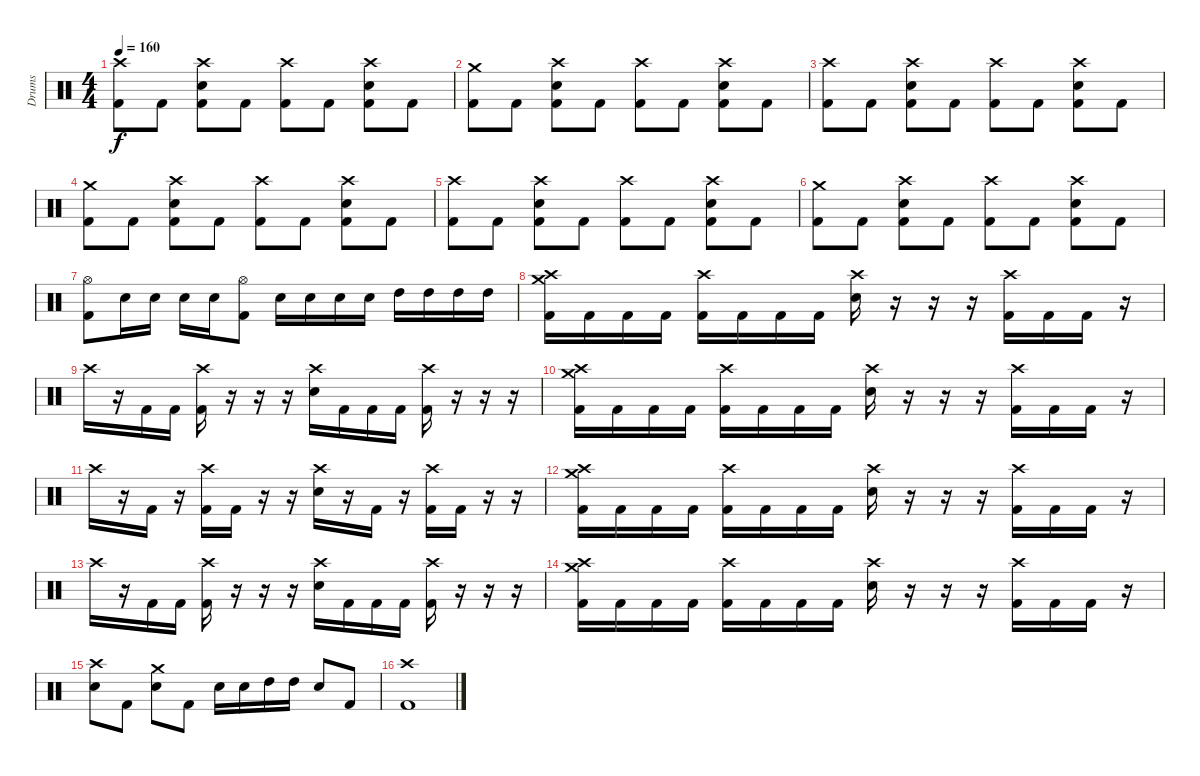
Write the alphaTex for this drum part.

\track ("Drums" "Drums") {instrument percussion}
\staff {score}
\articulation defaults
\ts (4 4)
\tempo 160
\clef neutral
\ks c
("Crash high (hit)" "Kick (hit) 2").8{dy f} "Kick (hit) 2".8 ("Crash high (hit)" "Electric Snare (hit)" "Kick (hit) 2").8 "Kick (hit) 2".8 ("Crash high (hit)" "Kick (hit) 2").8 "Kick (hit) 2".8 ("Crash high (hit)" "Electric Snare (hit)" "Kick (hit) 2").8 "Kick (hit) 2".8 |
("Crash medium (hit)" "Kick (hit) 2").8 "Kick (hit) 2".8 ("Crash high (hit)" "Electric Snare (hit)" "Kick (hit) 2").8 "Kick (hit) 2".8 ("Crash high (hit)" "Kick (hit) 2").8 "Kick (hit) 2".8 ("Crash high (hit)" "Electric Snare (hit)" "Kick (hit) 2").8 "Kick (hit) 2".8 |
("Crash high (hit)" "Kick (hit) 2").8 "Kick (hit) 2".8 ("Crash high (hit)" "Electric Snare (hit)" "Kick (hit) 2").8 "Kick (hit) 2".8 ("Crash high (hit)" "Kick (hit) 2").8 "Kick (hit) 2".8 ("Crash high (hit)" "Electric Snare (hit)" "Kick (hit) 2").8 "Kick (hit) 2".8 |
("Crash medium (hit)" "Kick (hit) 2").8 "Kick (hit) 2".8 ("Crash high (hit)" "Electric Snare (hit)" "Kick (hit) 2").8 "Kick (hit) 2".8 ("Crash high (hit)" "Kick (hit) 2").8 "Kick (hit) 2".8 ("Crash high (hit)" "Electric Snare (hit)" "Kick (hit) 2").8 "Kick (hit) 2".8 |
("Crash high (hit)" "Kick (hit) 2").8 "Kick (hit) 2".8 ("Crash high (hit)" "Electric Snare (hit)" "Kick (hit) 2").8 "Kick (hit) 2".8 ("Crash high (hit)" "Kick (hit) 2").8 "Kick (hit) 2".8 ("Crash high (hit)" "Electric Snare (hit)" "Kick (hit) 2").8 "Kick (hit) 2".8 |
("Crash medium (hit)" "Kick (hit) 2").8 "Kick (hit) 2".8 ("Crash high (hit)" "Electric Snare (hit)" "Kick (hit) 2").8 "Kick (hit) 2".8 ("Crash high (hit)" "Kick (hit) 2").8 "Kick (hit) 2".8 ("Crash high (hit)" "Electric Snare (hit)" "Kick (hit) 2").8 "Kick (hit) 2".8 |
("Hi-Hat (open)" "Kick (hit) 2").8 "Electric Snare (hit)".16 "Electric Snare (hit)".16 "Electric Snare (hit)".16 "Electric Snare (hit)".16 ("Hi-Hat (open)" "Kick (hit) 2").8 "Electric Snare (hit)".16 "Electric Snare (hit)".16 "Electric Snare (hit)".16 "Electric Snare (hit)".16 "High Tom (hit)".16 "High Tom (hit)".16 "High Tom (hit)".16 "High Tom (hit)".16 |
("Crash high (hit)" "Crash medium (hit)" "Kick (hit) 2").16 "Kick (hit) 2".16 "Kick (hit) 2".16 "Kick (hit) 2".16 ("Crash high (hit)" "Kick (hit) 2").16 "Kick (hit) 2".16 "Kick (hit) 2".16 "Kick (hit) 2".16 ("Crash high (hit)" "Electric Snare (hit)").16 r.16 r.16 r.16 ("Crash high (hit)" "Kick (hit) 2").16 "Kick (hit) 2".16 "Kick (hit) 2".16 r.16 |
"Crash high (hit)".16 r.16 "Kick (hit) 2".16 "Kick (hit) 2".16 ("Crash high (hit)" "Kick (hit) 2").16 r.16 r.16 r.16 ("Crash high (hit)" "Electric Snare (hit)").16 "Kick (hit) 2".16 "Kick (hit) 2".16 "Kick (hit) 2".16 ("Crash high (hit)" "Kick (hit) 2").16 r.16 r.16 r.16 |
("Crash high (hit)" "Crash medium (hit)" "Kick (hit) 2").16 "Kick (hit) 2".16 "Kick (hit) 2".16 "Kick (hit) 2".16 ("Crash high (hit)" "Kick (hit) 2").16 "Kick (hit) 2".16 "Kick (hit) 2".16 "Kick (hit) 2".16 ("Crash high (hit)" "Electric Snare (hit)").16 r.16 r.16 r.16 ("Crash high (hit)" "Kick (hit) 2").16 "Kick (hit) 2".16 "Kick (hit) 2".16 r.16 |
"Crash high (hit)".16 r.16 "Kick (hit) 2".16 r.16 ("Crash high (hit)" "Kick (hit) 2").16 "Kick (hit) 2".16 r.16 r.16 ("Crash high (hit)" "Electric Snare (hit)").16 r.16 "Kick (hit) 2".16 r.16 ("Crash high (hit)" "Kick (hit) 2").16 "Kick (hit) 2".16 r.16 r.16 |
("Crash high (hit)" "Crash medium (hit)" "Kick (hit) 2").16 "Kick (hit) 2".16 "Kick (hit) 2".16 "Kick (hit) 2".16 ("Crash high (hit)" "Kick (hit) 2").16 "Kick (hit) 2".16 "Kick (hit) 2".16 "Kick (hit) 2".16 ("Crash high (hit)" "Electric Snare (hit)").16 r.16 r.16 r.16 ("Crash high (hit)" "Kick (hit) 2").16 "Kick (hit) 2".16 "Kick (hit) 2".16 r.16 |
"Crash high (hit)".16 r.16 "Kick (hit) 2".16 "Kick (hit) 2".16 ("Crash high (hit)" "Kick (hit) 2").16 r.16 r.16 r.16 ("Crash high (hit)" "Electric Snare (hit)").16 "Kick (hit) 2".16 "Kick (hit) 2".16 "Kick (hit) 2".16 ("Crash high (hit)" "Kick (hit) 2").16 r.16 r.16 r.16 |
("Crash high (hit)" "Crash medium (hit)" "Kick (hit) 2").16 "Kick (hit) 2".16 "Kick (hit) 2".16 "Kick (hit) 2".16 ("Crash high (hit)" "Kick (hit) 2").16 "Kick (hit) 2".16 "Kick (hit) 2".16 "Kick (hit) 2".16 ("Crash high (hit)" "Electric Snare (hit)").16 r.16 r.16 r.16 ("Crash high (hit)" "Kick (hit) 2").16 "Kick (hit) 2".16 "Kick (hit) 2".16 r.16 |
("Crash high (hit)" "Electric Snare (hit)").8 "Kick (hit) 2".8 ("Crash medium (hit)" "Electric Snare (hit)").8 "Kick (hit) 2".8 "Electric Snare (hit)".16 "Electric Snare (hit)".16 "High Tom (hit)".16 "High Tom (hit)".16 "Electric Snare (hit)".8 "Kick (hit) 2".8 |
("Crash high (hit)" "Kick (hit) 2").1
